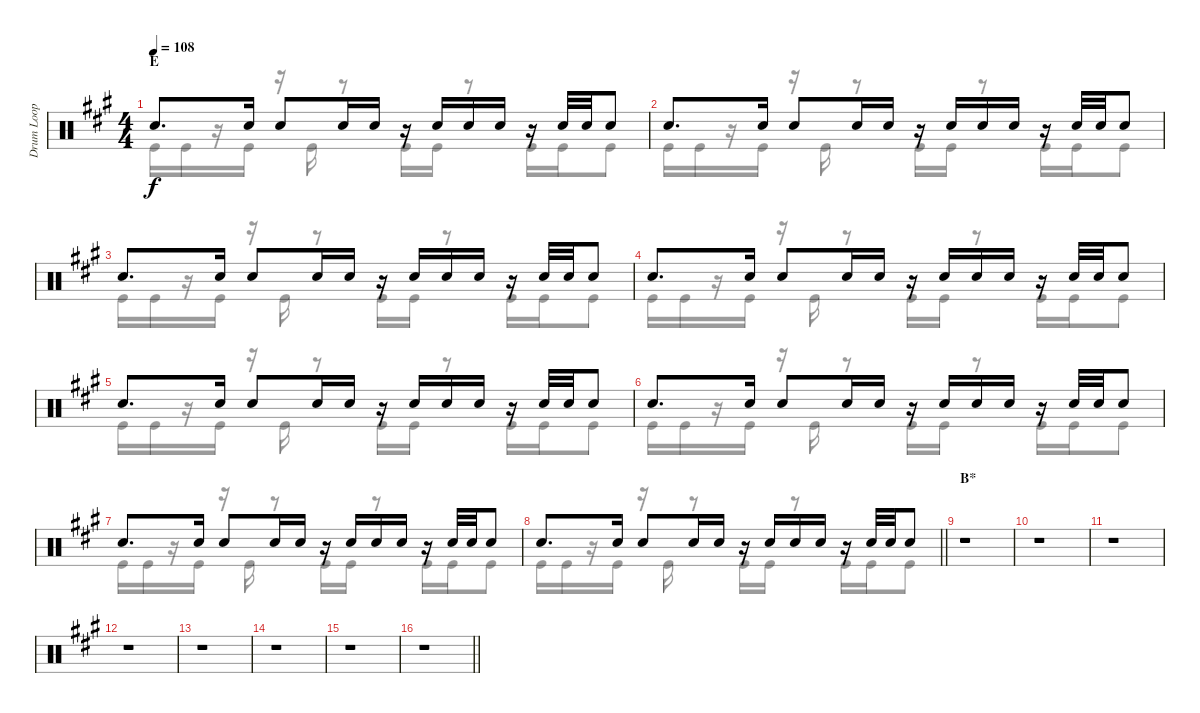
\track ("Drum Loop" "Drum Loop") {instrument percussion}
\staff {score}
\articulation defaults
\voice
\ts (4 4)
\section ("" "E")
\tempo 108
\clef neutral
\ks f#minor "Electric Snare (hit)".8{d dy f} "Electric Snare (hit)".16 "Electric Snare (hit)".8 "Electric Snare (hit)".16 "Electric Snare (hit)".16
r.16 "Electric Snare (hit)".16 "Electric Snare (hit)".16 "Electric Snare (hit)".16 r.16 "Electric Snare (hit)".32 "Electric Snare (hit)".32 "Electric Snare (hit)".8 |
"Electric Snare (hit)".8{d} "Electric Snare (hit)".16 "Electric Snare (hit)".8 "Electric Snare (hit)".16 "Electric Snare (hit)".16 r.16 "Electric Snare (hit)".16 "Electric Snare (hit)".16 "Electric Snare (hit)".16 r.16 "Electric Snare (hit)".32 "Electric Snare (hit)".32 "Electric Snare (hit)".8 |
"Electric Snare (hit)".8{d} "Electric Snare (hit)".16 "Electric Snare (hit)".8 "Electric Snare (hit)".16 "Electric Snare (hit)".16 r.16 "Electric Snare (hit)".16 "Electric Snare (hit)".16 "Electric Snare (hit)".16 r.16 "Electric Snare (hit)".32 "Electric Snare (hit)".32 "Electric Snare (hit)".8 |
"Electric Snare (hit)".8{d} "Electric Snare (hit)".16 "Electric Snare (hit)".8 "Electric Snare (hit)".16 "Electric Snare (hit)".16 r.16 "Electric Snare (hit)".16 "Electric Snare (hit)".16 "Electric Snare (hit)".16 r.16 "Electric Snare (hit)".32 "Electric Snare (hit)".32 "Electric Snare (hit)".8 |
"Electric Snare (hit)".8{d} "Electric Snare (hit)".16 "Electric Snare (hit)".8 "Electric Snare (hit)".16 "Electric Snare (hit)".16 r.16 "Electric Snare (hit)".16 "Electric Snare (hit)".16 "Electric Snare (hit)".16 r.16 "Electric Snare (hit)".32 "Electric Snare (hit)".32 "Electric Snare (hit)".8 |
"Electric Snare (hit)".8{d} "Electric Snare (hit)".16 "Electric Snare (hit)".8 "Electric Snare (hit)".16 "Electric Snare (hit)".16 r.16 "Electric Snare (hit)".16 "Electric Snare (hit)".16 "Electric Snare (hit)".16 r.16 "Electric Snare (hit)".32 "Electric Snare (hit)".32 "Electric Snare (hit)".8 |
"Electric Snare (hit)".8{d} "Electric Snare (hit)".16 "Electric Snare (hit)".8 "Electric Snare (hit)".16 "Electric Snare (hit)".16 r.16 "Electric Snare (hit)".16 "Electric Snare (hit)".16 "Electric Snare (hit)".16 r.16 "Electric Snare (hit)".32 "Electric Snare (hit)".32 "Electric Snare (hit)".8 |
\barLineRight lightlight "Electric Snare (hit)".8{d} "Electric Snare (hit)".16 "Electric Snare (hit)".8 "Electric Snare (hit)".16 "Electric Snare (hit)".16
r.16 "Electric Snare (hit)".16 "Electric Snare (hit)".16 "Electric Snare (hit)".16 r.16 "Electric Snare (hit)".32 "Electric Snare (hit)".32 "Electric Snare (hit)".8 |
\section ("" "B*")
r.1 |
r.1 |
r.1 |
r.1 |
r.1 |
r.1 |
r.1 |
\barLineRight lightlight
r.1
\voice
\clef neutral
\ottava regular
\simile none
\ks f#minor "Kick (hit)".16{dy f} "Kick (hit)".16
r.16 "Kick (hit)".16 r.16 "Kick (hit)".16 r.8 "Kick (hit)".16 "Kick (hit)".16 r.8 "Kick (hit)".16 "Kick (hit)".16 "Kick (hit)".8 |
"Kick (hit)".16 "Kick (hit)".16 r.16 "Kick (hit)".16 r.16 "Kick (hit)".16 r.8 "Kick (hit)".16 "Kick (hit)".16 r.8 "Kick (hit)".16 "Kick (hit)".16 "Kick (hit)".8 |
"Kick (hit)".16 "Kick (hit)".16 r.16 "Kick (hit)".16 r.16 "Kick (hit)".16 r.8 "Kick (hit)".16 "Kick (hit)".16 r.8 "Kick (hit)".16 "Kick (hit)".16 "Kick (hit)".8 |
"Kick (hit)".16 "Kick (hit)".16 r.16 "Kick (hit)".16 r.16 "Kick (hit)".16 r.8 "Kick (hit)".16 "Kick (hit)".16 r.8 "Kick (hit)".16 "Kick (hit)".16 "Kick (hit)".8 |
"Kick (hit)".16 "Kick (hit)".16 r.16 "Kick (hit)".16 r.16 "Kick (hit)".16 r.8 "Kick (hit)".16 "Kick (hit)".16 r.8 "Kick (hit)".16 "Kick (hit)".16 "Kick (hit)".8 |
"Kick (hit)".16 "Kick (hit)".16 r.16 "Kick (hit)".16 r.16 "Kick (hit)".16 r.8 "Kick (hit)".16 "Kick (hit)".16 r.8 "Kick (hit)".16 "Kick (hit)".16 "Kick (hit)".8 |
"Kick (hit)".16 "Kick (hit)".16 r.16 "Kick (hit)".16 r.16 "Kick (hit)".16 r.8 "Kick (hit)".16 "Kick (hit)".16 r.8 "Kick (hit)".16 "Kick (hit)".16 "Kick (hit)".8 |
\barLineRight lightlight "Kick (hit)".16 "Kick (hit)".16
r.16 "Kick (hit)".16 r.16 "Kick (hit)".16 r.8 "Kick (hit)".16 "Kick (hit)".16 r.8 "Kick (hit)".16 "Kick (hit)".16 "Kick (hit)".8 |
r.1 |
r.1 |
r.1 |
r.1 |
r.1 |
r.1 |
r.1 |
\barLineRight lightlight
r.1
